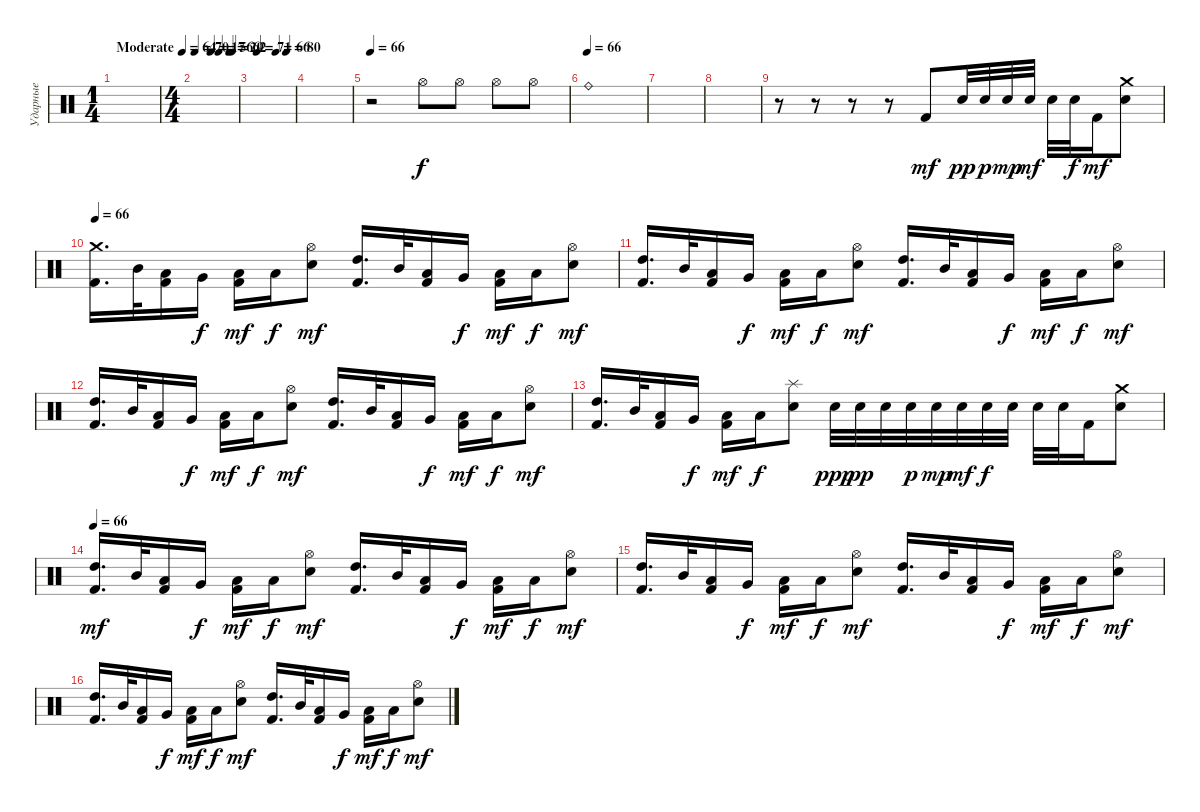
\track ("Ударные" "Ударные") {instrument percussion}
\staff {score}
\articulation defaults
\ts (1 4)
\tempo (64 "Moderate")
\clef neutral
\ks c
|
\ts (4 4)
\tempo 70
\tempo (17 0.375)
\tempo (56 0.5625)
\tempo (29 0.8125)
\tempo (62 0.875)
|
\tempo (71 0.125)
\tempo (66 0.5625)
\tempo (80 0.8125)
|
|
\tempo 66
r.2 "Hi-Hat (open)".8 "Hi-Hat (open)".8 "Hi-Hat (open)".8 "Hi-Hat (open)".8 |
\tempo (66)
"Ride (bell)".1 |
|
|
r.8 r.8 r.8 r.8 "Kick (hit) 2".8{dy mf} "Snare (hit) 2".32{dy pp} "Snare (hit) 2".32{dy p} "Snare (hit) 2".32{dy mp} "Snare (hit) 2".32{dy mf} "Snare (hit) 2".32 "Snare (hit) 2".32{dy f} "Kick (hit) 2".16{dy mf} ("Crash medium (hit)" "Snare (hit) 2").8 |
\tempo 66
("Crash medium (hit)" "Kick (hit) 2").16{d} "Mid Tom (hit)".32 ("Low Tom (hit)" "Kick (hit) 2").16 "Very Low Tom (hit)".16{dy f} ("Low Floor Tom (hit)" "Kick (hit) 2").16{dy mf} "Low Tom (hit)".16{dy f} ("Hi-Hat (open)" "Snare (hit) 2").8{dy mf} ("High Tom (hit)" "Kick (hit) 2").16{d} "Mid Tom (hit)".32 ("Low Tom (hit)" "Kick (hit) 2").16 "Very Low Tom (hit)".16{dy f} ("Low Floor Tom (hit)" "Kick (hit) 2").16{dy mf} "Low Tom (hit)".16{dy f} ("Hi-Hat (open)" "Snare (hit) 2").8{dy mf} |
("High Tom (hit)" "Kick (hit) 2").16{d} "Mid Tom (hit)".32 ("Low Tom (hit)" "Kick (hit) 2").16 "Very Low Tom (hit)".16{dy f} ("Low Floor Tom (hit)" "Kick (hit) 2").16{dy mf} "Low Tom (hit)".16{dy f} ("Hi-Hat (open)" "Snare (hit) 2").8{dy mf} ("High Tom (hit)" "Kick (hit) 2").16{d} "Mid Tom (hit)".32 ("Low Tom (hit)" "Kick (hit) 2").16 "Very Low Tom (hit)".16{dy f} ("Low Floor Tom (hit)" "Kick (hit) 2").16{dy mf} "Low Tom (hit)".16{dy f} ("Hi-Hat (open)" "Snare (hit) 2").8{dy mf} |
("High Tom (hit)" "Kick (hit) 2").16{d} "Mid Tom (hit)".32 ("Low Tom (hit)" "Kick (hit) 2").16 "Very Low Tom (hit)".16{dy f} ("Low Floor Tom (hit)" "Kick (hit) 2").16{dy mf} "Low Tom (hit)".16{dy f} ("Hi-Hat (open)" "Snare (hit) 2").8{dy mf} ("High Tom (hit)" "Kick (hit) 2").16{d} "Mid Tom (hit)".32 ("Low Tom (hit)" "Kick (hit) 2").16 "Very Low Tom (hit)".16{dy f} ("Low Floor Tom (hit)" "Kick (hit) 2").16{dy mf} "Low Tom (hit)".16{dy f} ("Hi-Hat (open)" "Snare (hit) 2").8{dy mf} |
("High Tom (hit)" "Kick (hit) 2").16{d} "Mid Tom (hit)".32 ("Low Tom (hit)" "Kick (hit) 2").16 "Very Low Tom (hit)".16{dy f} ("Low Floor Tom (hit)" "Kick (hit) 2").16{dy mf} "Low Tom (hit)".16{dy f} ("Splash (hit)" "Snare (hit) 2").8 "Snare (hit) 2".32{dy ppp} "Snare (hit) 2".32{dy pp} "Snare (hit) 2".32 "Snare (hit) 2".32{dy p} "Snare (hit) 2".32{dy mp} "Snare (hit) 2".32{dy mf} "Snare (hit) 2".32{dy f} "Snare (hit) 2".32 "Snare (hit) 2".32 "Snare (hit) 2".32 "Kick (hit) 2".16 ("Crash medium (hit)" "Snare (hit) 2").8 |
\tempo 66
("High Tom (hit)" "Kick (hit) 2").16{d dy mf} "Mid Tom (hit)".32 ("Low Tom (hit)" "Kick (hit) 2").16 "Very Low Tom (hit)".16{dy f} ("Low Floor Tom (hit)" "Kick (hit) 2").16{dy mf} "Low Tom (hit)".16{dy f} ("Hi-Hat (open)" "Snare (hit) 2").8{dy mf} ("High Tom (hit)" "Kick (hit) 2").16{d} "Mid Tom (hit)".32 ("Low Tom (hit)" "Kick (hit) 2").16 "Very Low Tom (hit)".16{dy f} ("Low Floor Tom (hit)" "Kick (hit) 2").16{dy mf} "Low Tom (hit)".16{dy f} ("Hi-Hat (open)" "Snare (hit) 2").8{dy mf} |
("High Tom (hit)" "Kick (hit) 2").16{d} "Mid Tom (hit)".32 ("Low Tom (hit)" "Kick (hit) 2").16 "Very Low Tom (hit)".16{dy f} ("Low Floor Tom (hit)" "Kick (hit) 2").16{dy mf} "Low Tom (hit)".16{dy f} ("Hi-Hat (open)" "Snare (hit) 2").8{dy mf} ("High Tom (hit)" "Kick (hit) 2").16{d} "Mid Tom (hit)".32 ("Low Tom (hit)" "Kick (hit) 2").16 "Very Low Tom (hit)".16{dy f} ("Low Floor Tom (hit)" "Kick (hit) 2").16{dy mf} "Low Tom (hit)".16{dy f} ("Hi-Hat (open)" "Snare (hit) 2").8{dy mf} |
("High Tom (hit)" "Kick (hit) 2").16{d} "Mid Tom (hit)".32 ("Low Tom (hit)" "Kick (hit) 2").16 "Very Low Tom (hit)".16{dy f} ("Low Floor Tom (hit)" "Kick (hit) 2").16{dy mf} "Low Tom (hit)".16{dy f} ("Hi-Hat (open)" "Snare (hit) 2").8{dy mf} ("High Tom (hit)" "Kick (hit) 2").16{d} "Mid Tom (hit)".32 ("Low Tom (hit)" "Kick (hit) 2").16 "Very Low Tom (hit)".16{dy f} ("Low Floor Tom (hit)" "Kick (hit) 2").16{dy mf} "Low Tom (hit)".16{dy f} ("Hi-Hat (open)" "Snare (hit) 2").8{dy mf}
